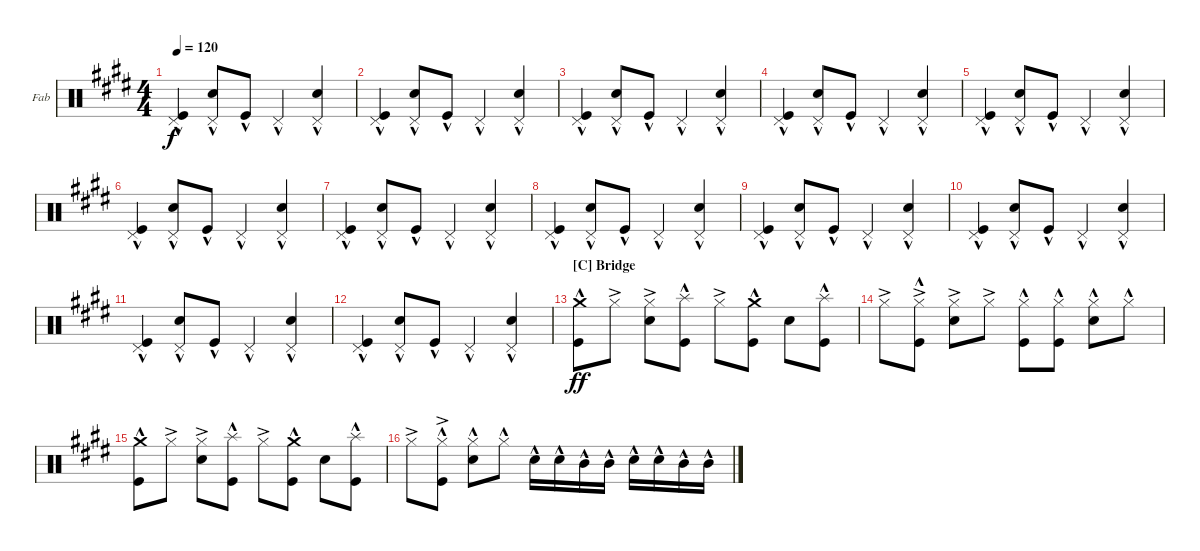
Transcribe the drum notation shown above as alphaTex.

\bracketExtendMode groupsimilarinstruments
\firstSystemTrackNameOrientation horizontal
\otherSystemsTrackNameOrientation horizontal
\track ("Drums" "Fab") {instrument percussion}
\staff {score}
\articulation defaults
\ts (4 4)
\tempo 120
\clef neutral
\scale
0.53357
\ks e
("Pedal Hi-Hat (hit)"{hac} "Kick (hit)"{hac}).4{dy f} ("Snare (hit) 2" "Pedal Hi-Hat (hit)"{hac}).8 "Kick (hit)"{hac}.8 "Pedal Hi-Hat (hit)"{hac}.4 ("Snare (hit) 2" "Pedal Hi-Hat (hit)"{hac}).4 |
\scale
0.466336 ("Pedal Hi-Hat (hit)"{hac} "Kick (hit)"{hac}).4 ("Snare (hit) 2" "Pedal Hi-Hat (hit)"{hac}).8 "Kick (hit)"{hac}.8 "Pedal Hi-Hat (hit)"{hac}.4 ("Snare (hit) 2" "Pedal Hi-Hat (hit)"{hac}).4 |
\scale
0.53357 ("Pedal Hi-Hat (hit)"{hac} "Kick (hit)"{hac}).4 ("Snare (hit) 2" "Pedal Hi-Hat (hit)"{hac}).8 "Kick (hit)"{hac}.8 "Pedal Hi-Hat (hit)"{hac}.4 ("Snare (hit) 2" "Pedal Hi-Hat (hit)"{hac}).4 |
\scale
0.466336 ("Pedal Hi-Hat (hit)"{hac} "Kick (hit)"{hac}).4 ("Snare (hit) 2" "Pedal Hi-Hat (hit)"{hac}).8 "Kick (hit)"{hac}.8 "Pedal Hi-Hat (hit)"{hac}.4 ("Snare (hit) 2" "Pedal Hi-Hat (hit)"{hac}).4 |
\scale
0.534953 ("Pedal Hi-Hat (hit)"{hac} "Kick (hit)"{hac}).4 ("Snare (hit) 2" "Pedal Hi-Hat (hit)"{hac}).8 "Kick (hit)"{hac}.8 "Pedal Hi-Hat (hit)"{hac}.4 ("Snare (hit) 2" "Pedal Hi-Hat (hit)"{hac}).4 |
\scale
0.464956 ("Pedal Hi-Hat (hit)"{hac} "Kick (hit)"{hac}).4 ("Snare (hit) 2" "Pedal Hi-Hat (hit)"{hac}).8 "Kick (hit)"{hac}.8 "Pedal Hi-Hat (hit)"{hac}.4 ("Snare (hit) 2" "Pedal Hi-Hat (hit)"{hac}).4 |
\scale
0.536335 ("Pedal Hi-Hat (hit)"{hac} "Kick (hit)"{hac}).4 ("Snare (hit) 2" "Pedal Hi-Hat (hit)"{hac}).8 "Kick (hit)"{hac}.8 "Pedal Hi-Hat (hit)"{hac}.4 ("Snare (hit) 2" "Pedal Hi-Hat (hit)"{hac}).4 |
\scale
0.463576 ("Pedal Hi-Hat (hit)"{hac} "Kick (hit)"{hac}).4 ("Snare (hit) 2" "Pedal Hi-Hat (hit)"{hac}).8 "Kick (hit)"{hac}.8 "Pedal Hi-Hat (hit)"{hac}.4 ("Snare (hit) 2" "Pedal Hi-Hat (hit)"{hac}).4 |
\scale
0.534953 ("Pedal Hi-Hat (hit)"{hac} "Kick (hit)"{hac}).4 ("Snare (hit) 2" "Pedal Hi-Hat (hit)"{hac}).8 "Kick (hit)"{hac}.8 "Pedal Hi-Hat (hit)"{hac}.4 ("Snare (hit) 2" "Pedal Hi-Hat (hit)"{hac}).4 |
\scale
0.464956 ("Pedal Hi-Hat (hit)"{hac} "Kick (hit)"{hac}).4 ("Snare (hit) 2" "Pedal Hi-Hat (hit)"{hac}).8 "Kick (hit)"{hac}.8 "Pedal Hi-Hat (hit)"{hac}.4 ("Snare (hit) 2" "Pedal Hi-Hat (hit)"{hac}).4 |
\scale
0.534953 ("Pedal Hi-Hat (hit)"{hac} "Kick (hit)"{hac}).4 ("Snare (hit) 2" "Pedal Hi-Hat (hit)"{hac}).8 "Kick (hit)"{hac}.8 "Pedal Hi-Hat (hit)"{hac}.4 ("Snare (hit) 2" "Pedal Hi-Hat (hit)"{hac}).4 |
\scale
0.464956 ("Pedal Hi-Hat (hit)"{hac} "Kick (hit)"{hac}).4 ("Snare (hit) 2" "Pedal Hi-Hat (hit)"{hac}).8 "Kick (hit)"{hac}.8 "Pedal Hi-Hat (hit)"{hac}.4 ("Snare (hit) 2" "Pedal Hi-Hat (hit)"{hac}).4 |
\section ("C" "Bridge")
\scale
0.536695 ("Crash medium (hit)" "Kick (hit)"{hac}).8{dy ff} "Hi-Hat (closed)"{ac}.8 ("Snare (hit) 2" "Hi-Hat (closed)"{ac}).8 ("Kick (hit)"{hac} "Splash (hit)").8 "Hi-Hat (closed)"{ac}.8 ("Crash medium (hit)" "Kick (hit)"{hac}).8 "Snare (hit) 2".8 ("Kick (hit)"{hac} "Splash (hit)").8 |
\scale
0.463193 "Hi-Hat (closed)"{ac}.8 ("Hi-Hat (closed)"{ac} "Kick (hit)"{hac}).8 ("Hi-Hat (closed)"{ac} "Snare (hit) 2").8 "Hi-Hat (closed)"{ac}.8 ("Hi-Hat (closed)"{hac} "Kick (hit)"{hac}).8 ("Hi-Hat (closed)"{hac} "Kick (hit)"{hac}).8 ("Hi-Hat (closed)"{hac} "Snare (hit) 2").8 "Hi-Hat (closed)"{hac}.8 |
\scale
0.534543 ("Crash medium (hit)" "Kick (hit)"{hac}).8 "Hi-Hat (closed)"{ac}.8 ("Snare (hit) 2" "Hi-Hat (closed)"{ac}).8 ("Kick (hit)"{hac} "Splash (hit)").8 "Hi-Hat (closed)"{ac}.8 ("Crash medium (hit)" "Kick (hit)"{hac}).8 "Snare (hit) 2".8 ("Kick (hit)"{hac} "Splash (hit)").8 |
\scale
0.46548 "Hi-Hat (closed)"{ac}.8 ("Kick (hit)"{hac} "Hi-Hat (closed)"{ac}).8 ("Snare (hit) 2" "Hi-Hat (closed)"{hac}).8 "Hi-Hat (closed)"{hac}.8 "Snare (hit) 2"{hac}.16 "Snare (hit) 2"{hac}.16 "Mid Tom (hit)"{hac}.16 "Mid Tom (hit)"{hac}.16 "Snare (hit) 2"{hac}.16 "Snare (hit) 2"{hac}.16 "Mid Tom (hit)"{hac}.16 "Mid Tom (hit)"{hac}.16
